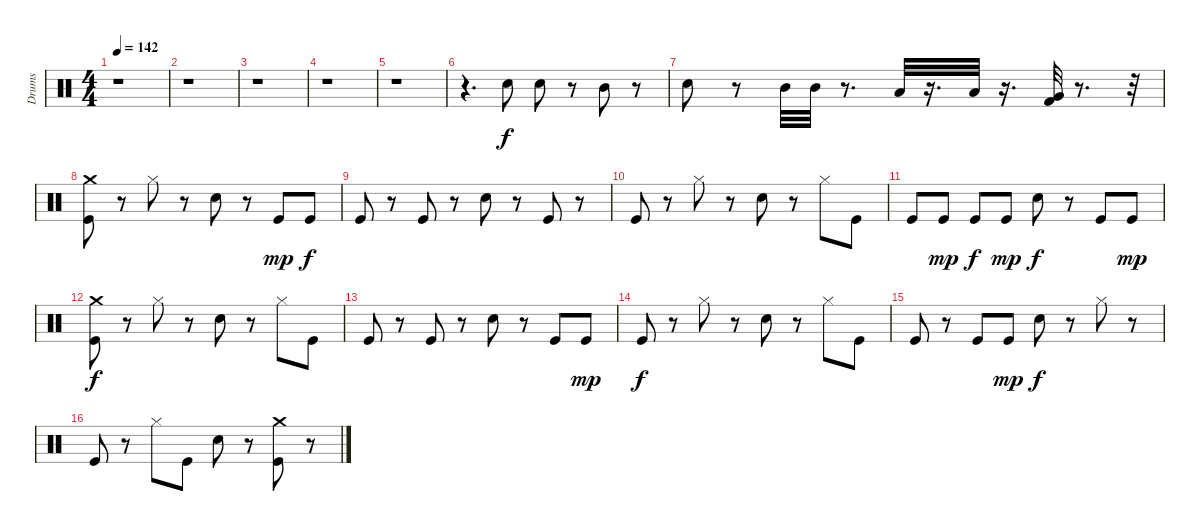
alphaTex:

\track ("Drums" "Drums") {instrument percussion}
\staff {score}
\articulation defaults
\ts (4 4)
\tempo 142
\clef neutral
\ks c
r.1{dy f} |
r.1 |
r.1 |
r.1 |
r.1 |
r.4{d} "Electric Snare (hit)".8 "Electric Snare (hit)".8 r.8 "Mid Tom (hit)".8 r.8 |
"Electric Snare (hit)".8 r.8 "Mid Tom (hit)".32 "Mid Tom (hit)".32 r.8{d} "Low Tom (hit)".32 r.16{d} "Low Tom (hit)".32 r.16{d} ("Kick (hit) 2" "Very Low Tom (hit)").32 r.8{d} r.32 |
("Crash medium (hit)" "Kick (hit)").8 r.8 "Hi-Hat (closed)".8 r.8 "Electric Snare (hit)".8 r.8 "Kick (hit)".8{dy mp} "Kick (hit)".8{dy f} |
"Kick (hit)".8 r.8 "Kick (hit)".8 r.8 "Electric Snare (hit)".8 r.8 "Kick (hit)".8 r.8 |
"Kick (hit)".8 r.8 "Hi-Hat (closed)".8 r.8 "Electric Snare (hit)".8 r.8 "Hi-Hat (closed)".8 "Kick (hit)".8 |
"Kick (hit)".8 "Kick (hit)".8{dy mp} "Kick (hit)".8{dy f} "Kick (hit)".8{dy mp} "Electric Snare (hit)".8{dy f} r.8 "Kick (hit)".8 "Kick (hit)".8{dy mp} |
("Crash medium (hit)" "Kick (hit)").8{dy f} r.8 "Hi-Hat (closed)".8 r.8 "Electric Snare (hit)".8 r.8 "Hi-Hat (closed)".8 "Kick (hit)".8 |
"Kick (hit)".8 r.8 "Kick (hit)".8 r.8 "Electric Snare (hit)".8 r.8 "Kick (hit)".8 "Kick (hit)".8{dy mp} |
"Kick (hit)".8{dy f} r.8 "Hi-Hat (closed)".8 r.8 "Electric Snare (hit)".8 r.8 "Hi-Hat (closed)".8 "Kick (hit)".8 |
"Kick (hit)".8 r.8 "Kick (hit)".8 "Kick (hit)".8{dy mp} "Electric Snare (hit)".8{dy f} r.8 "Hi-Hat (closed)".8 r.8 |
"Kick (hit)".8 r.8 "Hi-Hat (closed)".8 "Kick (hit)".8 "Electric Snare (hit)".8 r.8 ("Crash medium (hit)" "Kick (hit)").8 r.8
